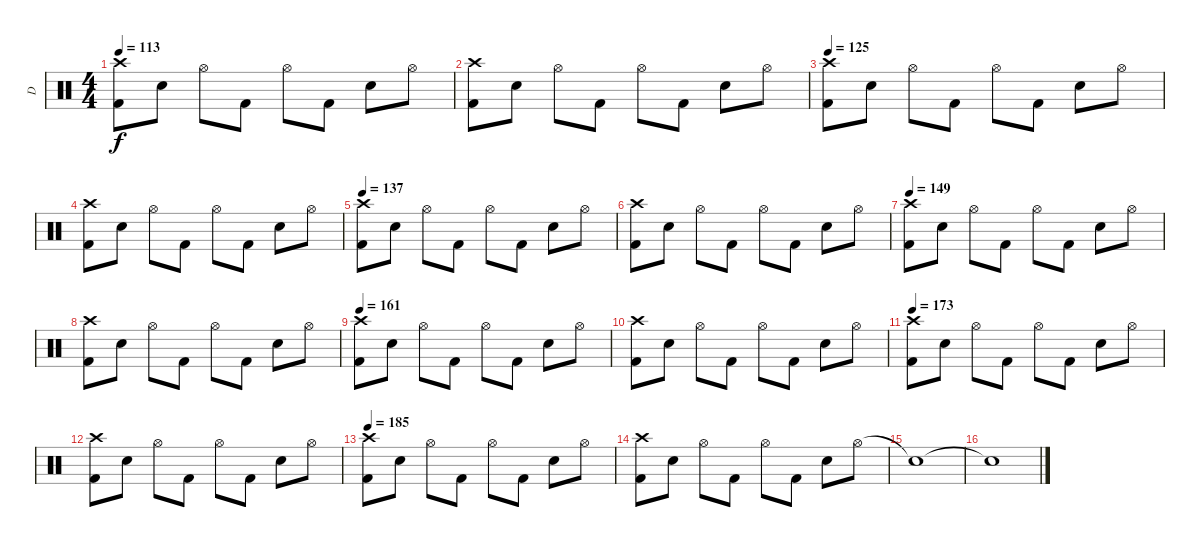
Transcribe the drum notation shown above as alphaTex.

\track ("D" "D") {instrument percussion}
\staff {score}
\articulation defaults
\ts (4 4)
\tempo 113
\clef neutral
\ks c
("Crash high (hit)" "Kick (hit) 2").8{dy f} "Electric Snare (hit)".8 "Hi-Hat (open)".8 "Kick (hit) 2".8 "Hi-Hat (open)".8 "Kick (hit) 2".8 "Electric Snare (hit)".8 "Hi-Hat (open)".8 |
("Crash high (hit)" "Kick (hit) 2").8 "Electric Snare (hit)".8 "Hi-Hat (open)".8 "Kick (hit) 2".8 "Hi-Hat (open)".8 "Kick (hit) 2".8 "Electric Snare (hit)".8 "Hi-Hat (open)".8 |
\tempo 125
("Crash high (hit)" "Kick (hit) 2").8 "Electric Snare (hit)".8 "Hi-Hat (open)".8 "Kick (hit) 2".8 "Hi-Hat (open)".8 "Kick (hit) 2".8 "Electric Snare (hit)".8 "Hi-Hat (open)".8 |
("Crash high (hit)" "Kick (hit) 2").8 "Electric Snare (hit)".8 "Hi-Hat (open)".8 "Kick (hit) 2".8 "Hi-Hat (open)".8 "Kick (hit) 2".8 "Electric Snare (hit)".8 "Hi-Hat (open)".8 |
\tempo 137
("Crash high (hit)" "Kick (hit) 2").8 "Electric Snare (hit)".8 "Hi-Hat (open)".8 "Kick (hit) 2".8 "Hi-Hat (open)".8 "Kick (hit) 2".8 "Electric Snare (hit)".8 "Hi-Hat (open)".8 |
("Crash high (hit)" "Kick (hit) 2").8 "Electric Snare (hit)".8 "Hi-Hat (open)".8 "Kick (hit) 2".8 "Hi-Hat (open)".8 "Kick (hit) 2".8 "Electric Snare (hit)".8 "Hi-Hat (open)".8 |
\tempo 149
("Crash high (hit)" "Kick (hit) 2").8 "Electric Snare (hit)".8 "Hi-Hat (open)".8 "Kick (hit) 2".8 "Hi-Hat (open)".8 "Kick (hit) 2".8 "Electric Snare (hit)".8 "Hi-Hat (open)".8 |
("Crash high (hit)" "Kick (hit) 2").8 "Electric Snare (hit)".8 "Hi-Hat (open)".8 "Kick (hit) 2".8 "Hi-Hat (open)".8 "Kick (hit) 2".8 "Electric Snare (hit)".8 "Hi-Hat (open)".8 |
\tempo 161
("Crash high (hit)" "Kick (hit) 2").8 "Electric Snare (hit)".8 "Hi-Hat (open)".8 "Kick (hit) 2".8 "Hi-Hat (open)".8 "Kick (hit) 2".8 "Electric Snare (hit)".8 "Hi-Hat (open)".8 |
("Crash high (hit)" "Kick (hit) 2").8 "Electric Snare (hit)".8 "Hi-Hat (open)".8 "Kick (hit) 2".8 "Hi-Hat (open)".8 "Kick (hit) 2".8 "Electric Snare (hit)".8 "Hi-Hat (open)".8 |
\tempo 173
("Crash high (hit)" "Kick (hit) 2").8 "Electric Snare (hit)".8 "Hi-Hat (open)".8 "Kick (hit) 2".8 "Hi-Hat (open)".8 "Kick (hit) 2".8 "Electric Snare (hit)".8 "Hi-Hat (open)".8 |
("Crash high (hit)" "Kick (hit) 2").8 "Electric Snare (hit)".8 "Hi-Hat (open)".8 "Kick (hit) 2".8 "Hi-Hat (open)".8 "Kick (hit) 2".8 "Electric Snare (hit)".8 "Hi-Hat (open)".8 |
\tempo 185
("Crash high (hit)" "Kick (hit) 2").8 "Electric Snare (hit)".8 "Hi-Hat (open)".8 "Kick (hit) 2".8 "Hi-Hat (open)".8 "Kick (hit) 2".8 "Electric Snare (hit)".8 "Hi-Hat (open)".8 |
("Crash high (hit)" "Kick (hit) 2").8 "Electric Snare (hit)".8 "Hi-Hat (open)".8 "Kick (hit) 2".8 "Hi-Hat (open)".8 "Kick (hit) 2".8 "Electric Snare (hit)".8 "Hi-Hat (open)".8 |
"Snare (hit)"{t}.1 |
"Snare (hit)"{t}.1
